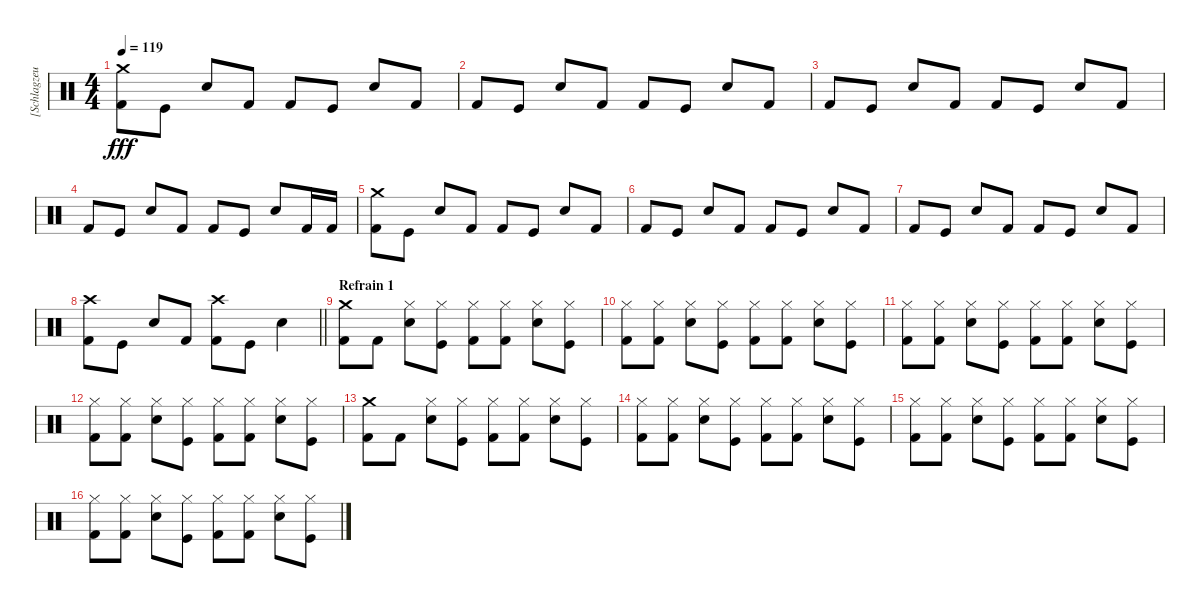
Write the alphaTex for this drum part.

\track ("[Schlagzeug]" "[Schlagzeu") {instrument percussion}
\staff {score}
\articulation defaults
\ts (4 4)
\tempo 119
\clef neutral
\ks c
("Crash medium (hit)" "Kick (hit) 2").8{dy fff} "Kick (hit)".8 "Electric Snare (hit)".8 "Kick (hit) 2".8 "Kick (hit) 2".8 "Kick (hit)".8 "Electric Snare (hit)".8 "Kick (hit) 2".8 |
"Kick (hit) 2".8 "Kick (hit)".8 "Electric Snare (hit)".8 "Kick (hit) 2".8 "Kick (hit) 2".8 "Kick (hit)".8 "Electric Snare (hit)".8 "Kick (hit) 2".8 |
"Kick (hit) 2".8 "Kick (hit)".8 "Electric Snare (hit)".8 "Kick (hit) 2".8 "Kick (hit) 2".8 "Kick (hit)".8 "Electric Snare (hit)".8 "Kick (hit) 2".8 |
"Kick (hit) 2".8 "Kick (hit)".8 "Electric Snare (hit)".8 "Kick (hit) 2".8 "Kick (hit) 2".8 "Kick (hit)".8 "Electric Snare (hit)".8 "Kick (hit) 2".16 "Kick (hit) 2".16 |
("Crash medium (hit)" "Kick (hit) 2").8 "Kick (hit)".8 "Electric Snare (hit)".8 "Kick (hit) 2".8 "Kick (hit) 2".8 "Kick (hit)".8 "Electric Snare (hit)".8 "Kick (hit) 2".8 |
"Kick (hit) 2".8 "Kick (hit)".8 "Electric Snare (hit)".8 "Kick (hit) 2".8 "Kick (hit) 2".8 "Kick (hit)".8 "Electric Snare (hit)".8 "Kick (hit) 2".8 |
"Kick (hit) 2".8 "Kick (hit)".8 "Electric Snare (hit)".8 "Kick (hit) 2".8 "Kick (hit) 2".8 "Kick (hit)".8 "Electric Snare (hit)".8 "Kick (hit) 2".8 |
\barLineRight lightlight
("Crash high (hit)" "Kick (hit) 2").8 "Kick (hit)".8 "Electric Snare (hit)".8 "Kick (hit) 2".8 ("Crash high (hit)" "Kick (hit) 2").8 "Kick (hit)".8 "Electric Snare (hit)".4 |
\section ("" "Refrain 1")
("Crash medium (hit)" "Kick (hit) 2").8 "Kick (hit) 2".8 ("Hi-Hat (closed)" "Electric Snare (hit)").8 ("Hi-Hat (closed)" "Kick (hit)").8 ("Hi-Hat (closed)" "Kick (hit) 2").8 ("Hi-Hat (closed)" "Kick (hit) 2").8 ("Hi-Hat (closed)" "Electric Snare (hit)").8 ("Hi-Hat (closed)" "Kick (hit)").8 |
("Hi-Hat (closed)" "Kick (hit) 2").8 ("Hi-Hat (closed)" "Kick (hit) 2").8 ("Hi-Hat (closed)" "Electric Snare (hit)").8 ("Hi-Hat (closed)" "Kick (hit)").8 ("Hi-Hat (closed)" "Kick (hit) 2").8 ("Hi-Hat (closed)" "Kick (hit) 2").8 ("Hi-Hat (closed)" "Electric Snare (hit)").8 ("Hi-Hat (closed)" "Kick (hit)").8 |
("Hi-Hat (closed)" "Kick (hit) 2").8 ("Hi-Hat (closed)" "Kick (hit) 2").8 ("Hi-Hat (closed)" "Electric Snare (hit)").8 ("Hi-Hat (closed)" "Kick (hit)").8 ("Hi-Hat (closed)" "Kick (hit) 2").8 ("Hi-Hat (closed)" "Kick (hit) 2").8 ("Hi-Hat (closed)" "Electric Snare (hit)").8 ("Hi-Hat (closed)" "Kick (hit)").8 |
("Hi-Hat (closed)" "Kick (hit) 2").8 ("Hi-Hat (closed)" "Kick (hit) 2").8 ("Hi-Hat (closed)" "Electric Snare (hit)").8 ("Hi-Hat (closed)" "Kick (hit)").8 ("Hi-Hat (closed)" "Kick (hit) 2").8 ("Hi-Hat (closed)" "Kick (hit) 2").8 ("Hi-Hat (closed)" "Electric Snare (hit)").8 ("Hi-Hat (closed)" "Kick (hit)").8 |
("Crash medium (hit)" "Kick (hit) 2").8 "Kick (hit) 2".8 ("Hi-Hat (closed)" "Electric Snare (hit)").8 ("Hi-Hat (closed)" "Kick (hit)").8 ("Hi-Hat (closed)" "Kick (hit) 2").8 ("Hi-Hat (closed)" "Kick (hit) 2").8 ("Hi-Hat (closed)" "Electric Snare (hit)").8 ("Hi-Hat (closed)" "Kick (hit)").8 |
("Hi-Hat (closed)" "Kick (hit) 2").8 ("Hi-Hat (closed)" "Kick (hit) 2").8 ("Hi-Hat (closed)" "Electric Snare (hit)").8 ("Hi-Hat (closed)" "Kick (hit)").8 ("Hi-Hat (closed)" "Kick (hit) 2").8 ("Hi-Hat (closed)" "Kick (hit) 2").8 ("Hi-Hat (closed)" "Electric Snare (hit)").8 ("Hi-Hat (closed)" "Kick (hit)").8 |
("Hi-Hat (closed)" "Kick (hit) 2").8 ("Hi-Hat (closed)" "Kick (hit) 2").8 ("Hi-Hat (closed)" "Electric Snare (hit)").8 ("Hi-Hat (closed)" "Kick (hit)").8 ("Hi-Hat (closed)" "Kick (hit) 2").8 ("Hi-Hat (closed)" "Kick (hit) 2").8 ("Hi-Hat (closed)" "Electric Snare (hit)").8 ("Hi-Hat (closed)" "Kick (hit)").8 |
("Hi-Hat (closed)" "Kick (hit) 2").8 ("Hi-Hat (closed)" "Kick (hit) 2").8 ("Hi-Hat (closed)" "Electric Snare (hit)").8 ("Hi-Hat (closed)" "Kick (hit)").8 ("Hi-Hat (closed)" "Kick (hit) 2").8 ("Hi-Hat (closed)" "Kick (hit) 2").8 ("Hi-Hat (closed)" "Electric Snare (hit)").8 ("Hi-Hat (closed)" "Kick (hit)").8
